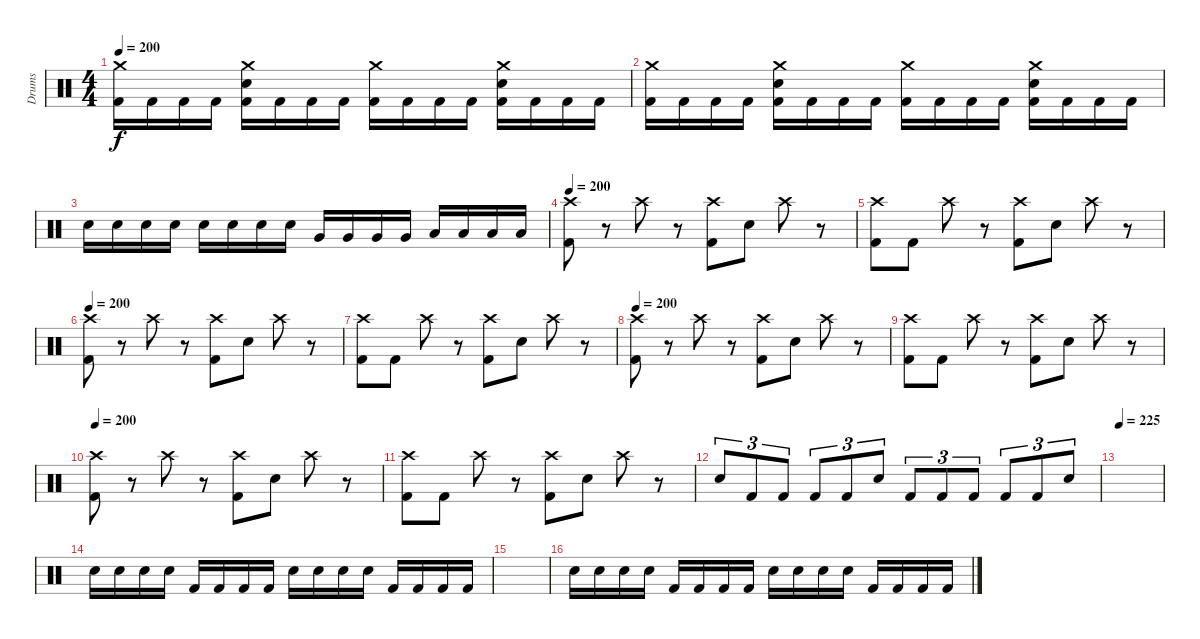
\track ("Drums" "Drums") {instrument percussion}
\staff {score}
\articulation defaults
\ts (4 4)
\tempo 200
\clef neutral
\ks c
("Crash medium (hit)" "Kick (hit) 2").16{dy f} "Kick (hit) 2".16 "Kick (hit) 2".16 "Kick (hit) 2".16 ("Crash medium (hit)" "Electric Snare (hit)" "Kick (hit) 2").16 "Kick (hit) 2".16 "Kick (hit) 2".16 "Kick (hit) 2".16 ("Crash medium (hit)" "Kick (hit) 2").16 "Kick (hit) 2".16 "Kick (hit) 2".16 "Kick (hit) 2".16 ("Crash medium (hit)" "Electric Snare (hit)" "Kick (hit) 2").16 "Kick (hit) 2".16 "Kick (hit) 2".16 "Kick (hit) 2".16 |
("Crash medium (hit)" "Kick (hit) 2").16 "Kick (hit) 2".16 "Kick (hit) 2".16 "Kick (hit) 2".16 ("Crash medium (hit)" "Electric Snare (hit)" "Kick (hit) 2").16 "Kick (hit) 2".16 "Kick (hit) 2".16 "Kick (hit) 2".16 ("Crash medium (hit)" "Kick (hit) 2").16 "Kick (hit) 2".16 "Kick (hit) 2".16 "Kick (hit) 2".16 ("Crash medium (hit)" "Electric Snare (hit)" "Kick (hit) 2").16 "Kick (hit) 2".16 "Kick (hit) 2".16 "Kick (hit) 2".16 |
"Electric Snare (hit)".16 "Electric Snare (hit)".16 "Electric Snare (hit)".16 "Electric Snare (hit)".16 "Electric Snare (hit)".16 "Electric Snare (hit)".16 "Electric Snare (hit)".16 "Electric Snare (hit)".16 "Very Low Tom (hit)".16 "Very Low Tom (hit)".16 "Very Low Tom (hit)".16 "Very Low Tom (hit)".16 "Low Floor Tom (hit)".16 "Low Floor Tom (hit)".16 "Low Floor Tom (hit)".16 "Low Floor Tom (hit)".16 |
\tempo 200
("Crash high (hit)" "Kick (hit) 2").8 r.8 "Crash high (hit)".8 r.8 ("Crash high (hit)" "Kick (hit) 2").8 "Electric Snare (hit)".8 "Crash high (hit)".8 r.8 |
("Crash high (hit)" "Kick (hit) 2").8 "Kick (hit) 2".8 "Crash high (hit)".8 r.8 ("Crash high (hit)" "Kick (hit) 2").8 "Electric Snare (hit)".8 "Crash high (hit)".8 r.8 |
\tempo 200
("Crash high (hit)" "Kick (hit) 2").8 r.8 "Crash high (hit)".8 r.8 ("Crash high (hit)" "Kick (hit) 2").8 "Electric Snare (hit)".8 "Crash high (hit)".8 r.8 |
("Crash high (hit)" "Kick (hit) 2").8 "Kick (hit) 2".8 "Crash high (hit)".8 r.8 ("Crash high (hit)" "Kick (hit) 2").8 "Electric Snare (hit)".8 "Crash high (hit)".8 r.8 |
\tempo 200
("Crash high (hit)" "Kick (hit) 2").8 r.8 "Crash high (hit)".8 r.8 ("Crash high (hit)" "Kick (hit) 2").8 "Electric Snare (hit)".8 "Crash high (hit)".8 r.8 |
("Crash high (hit)" "Kick (hit) 2").8 "Kick (hit) 2".8 "Crash high (hit)".8 r.8 ("Crash high (hit)" "Kick (hit) 2").8 "Electric Snare (hit)".8 "Crash high (hit)".8 r.8 |
\tempo 200
("Crash high (hit)" "Kick (hit) 2").8 r.8 "Crash high (hit)".8 r.8 ("Crash high (hit)" "Kick (hit) 2").8 "Electric Snare (hit)".8 "Crash high (hit)".8 r.8 |
("Crash high (hit)" "Kick (hit) 2").8 "Kick (hit) 2".8 "Crash high (hit)".8 r.8 ("Crash high (hit)" "Kick (hit) 2").8 "Electric Snare (hit)".8 "Crash high (hit)".8 r.8 |
"Electric Snare (hit)".8{tu (3 2)} "Kick (hit) 2".8{tu (3 2)} "Kick (hit) 2".8{tu (3 2)} "Kick (hit) 2".8{tu (3 2)} "Kick (hit) 2".8{tu (3 2)} "Electric Snare (hit)".8{tu (3 2)} "Kick (hit) 2".8{tu (3 2)} "Kick (hit) 2".8{tu (3 2)} "Kick (hit) 2".8{tu (3 2)} "Kick (hit) 2".8{tu (3 2)} "Kick (hit) 2".8{tu (3 2)} "Electric Snare (hit)".8{tu (3 2)} |
\tempo 225
|
"Electric Snare (hit)".16 "Electric Snare (hit)".16 "Electric Snare (hit)".16 "Electric Snare (hit)".16 "Kick (hit) 2".16 "Kick (hit) 2".16 "Kick (hit) 2".16 "Kick (hit) 2".16 "Electric Snare (hit)".16 "Electric Snare (hit)".16 "Electric Snare (hit)".16 "Electric Snare (hit)".16 "Kick (hit) 2".16 "Kick (hit) 2".16 "Kick (hit) 2".16 "Kick (hit) 2".16 |
|
"Electric Snare (hit)".16 "Electric Snare (hit)".16 "Electric Snare (hit)".16 "Electric Snare (hit)".16 "Kick (hit) 2".16 "Kick (hit) 2".16 "Kick (hit) 2".16 "Kick (hit) 2".16 "Electric Snare (hit)".16 "Electric Snare (hit)".16 "Electric Snare (hit)".16 "Electric Snare (hit)".16 "Kick (hit) 2".16 "Kick (hit) 2".16 "Kick (hit) 2".16 "Kick (hit) 2".16
